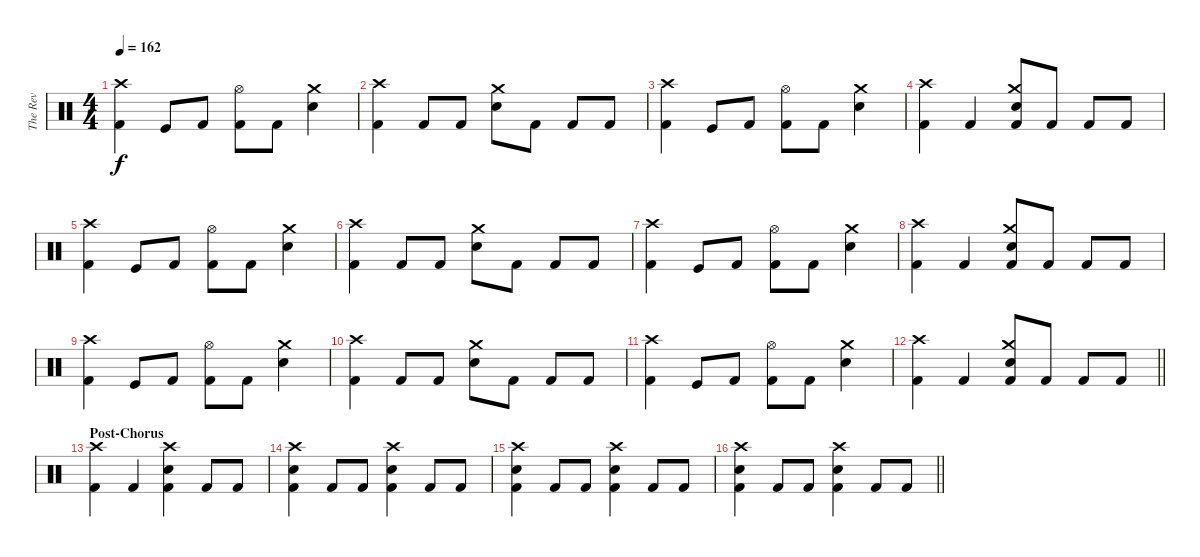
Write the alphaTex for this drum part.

\track ("The Rev" "The Rev") {instrument percussion}
\staff {score}
\articulation defaults
\ts (4 4)
\tempo 162
\clef neutral
\ks c
("Crash high (hit)" "Kick (hit) 2").4{dy f} "Kick (hit)".8 "Kick (hit) 2".8 ("Hi-Hat (open)" "Kick (hit) 2").8 "Kick (hit) 2".8 ("Crash medium (hit)" "Electric Snare (hit)").4 |
("Crash high (hit)" "Kick (hit) 2").4 "Kick (hit) 2".8 "Kick (hit) 2".8 ("Crash medium (hit)" "Electric Snare (hit)").8 "Kick (hit) 2".8 "Kick (hit) 2".8 "Kick (hit) 2".8 |
("Crash high (hit)" "Kick (hit) 2").4 "Kick (hit)".8 "Kick (hit) 2".8 ("Hi-Hat (open)" "Kick (hit) 2").8 "Kick (hit) 2".8 ("Crash medium (hit)" "Electric Snare (hit)").4 |
("Crash high (hit)" "Kick (hit) 2").4 "Kick (hit) 2".4 ("Crash medium (hit)" "Electric Snare (hit)" "Kick (hit) 2").8 "Kick (hit) 2".8 "Kick (hit) 2".8 "Kick (hit) 2".8 |
("Crash high (hit)" "Kick (hit) 2").4 "Kick (hit)".8 "Kick (hit) 2".8 ("Hi-Hat (open)" "Kick (hit) 2").8 "Kick (hit) 2".8 ("Crash medium (hit)" "Electric Snare (hit)").4 |
("Crash high (hit)" "Kick (hit) 2").4 "Kick (hit) 2".8 "Kick (hit) 2".8 ("Crash medium (hit)" "Electric Snare (hit)").8 "Kick (hit) 2".8 "Kick (hit) 2".8 "Kick (hit) 2".8 |
("Crash high (hit)" "Kick (hit) 2").4 "Kick (hit)".8 "Kick (hit) 2".8 ("Hi-Hat (open)" "Kick (hit) 2").8 "Kick (hit) 2".8 ("Crash medium (hit)" "Electric Snare (hit)").4 |
("Crash high (hit)" "Kick (hit) 2").4 "Kick (hit) 2".4 ("Crash medium (hit)" "Electric Snare (hit)" "Kick (hit) 2").8 "Kick (hit) 2".8 "Kick (hit) 2".8 "Kick (hit) 2".8 |
("Crash high (hit)" "Kick (hit) 2").4 "Kick (hit)".8 "Kick (hit) 2".8 ("Hi-Hat (open)" "Kick (hit) 2").8 "Kick (hit) 2".8 ("Crash medium (hit)" "Electric Snare (hit)").4 |
("Crash high (hit)" "Kick (hit) 2").4 "Kick (hit) 2".8 "Kick (hit) 2".8 ("Crash medium (hit)" "Electric Snare (hit)").8 "Kick (hit) 2".8 "Kick (hit) 2".8 "Kick (hit) 2".8 |
("Crash high (hit)" "Kick (hit) 2").4 "Kick (hit)".8 "Kick (hit) 2".8 ("Hi-Hat (open)" "Kick (hit) 2").8 "Kick (hit) 2".8 ("Crash medium (hit)" "Electric Snare (hit)").4 |
\barLineRight lightlight
("Crash high (hit)" "Kick (hit) 2").4 "Kick (hit) 2".4 ("Crash medium (hit)" "Electric Snare (hit)" "Kick (hit) 2").8 "Kick (hit) 2".8 "Kick (hit) 2".8 "Kick (hit) 2".8 |
\section ("" "Post-Chorus")
("Crash high (hit)" "Kick (hit) 2").4 "Kick (hit) 2".4 ("Crash high (hit)" "Electric Snare (hit)" "Kick (hit) 2").4 "Kick (hit) 2".8 "Kick (hit) 2".8 |
("Crash high (hit)" "Electric Snare (hit)" "Kick (hit) 2").4 "Kick (hit) 2".8 "Kick (hit) 2".8 ("Crash high (hit)" "Electric Snare (hit)" "Kick (hit) 2").4 "Kick (hit) 2".8 "Kick (hit) 2".8 |
("Crash high (hit)" "Electric Snare (hit)" "Kick (hit) 2").4 "Kick (hit) 2".8 "Kick (hit) 2".8 ("Crash high (hit)" "Electric Snare (hit)" "Kick (hit) 2").4 "Kick (hit) 2".8 "Kick (hit) 2".8 |
\barLineRight lightlight
("Crash high (hit)" "Electric Snare (hit)" "Kick (hit) 2").4 "Kick (hit) 2".8 "Kick (hit) 2".8 ("Crash high (hit)" "Electric Snare (hit)" "Kick (hit) 2").4 "Kick (hit) 2".8 "Kick (hit) 2".8
